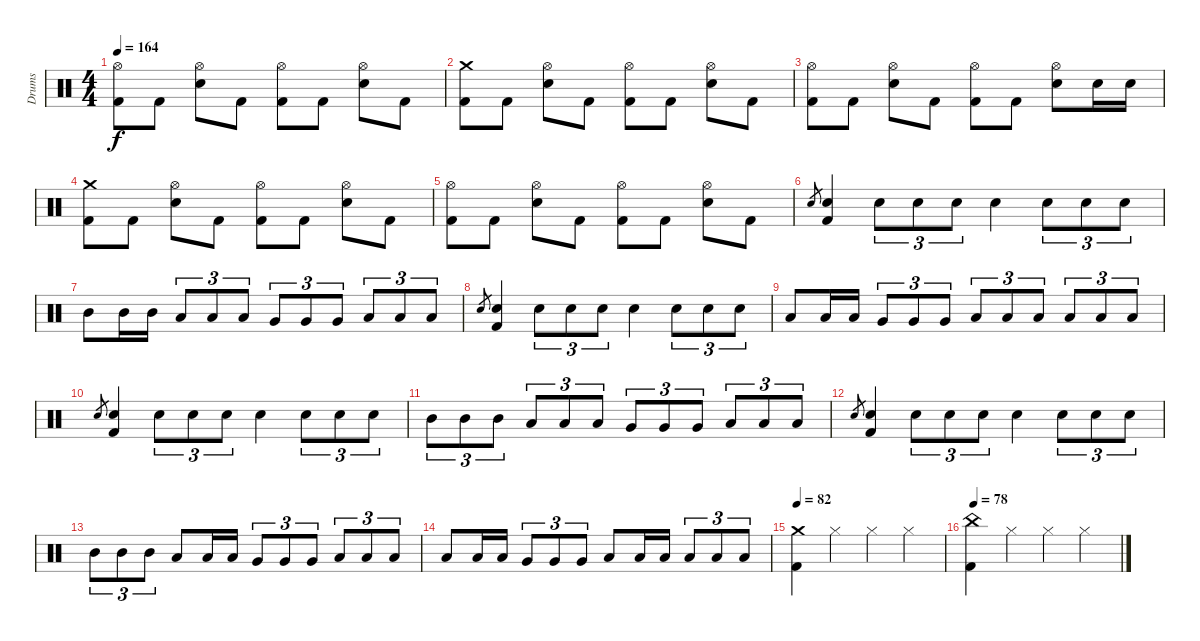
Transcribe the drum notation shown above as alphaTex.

\track ("Drums" "Drums") {instrument percussion}
\staff {score}
\articulation defaults
\ts (4 4)
\tempo 164
\clef neutral
\ks c
("Hi-Hat (open)" "Kick (hit) 2").8{dy f} "Kick (hit) 2".8 ("Hi-Hat (open)" "Electric Snare (hit)").8 "Kick (hit) 2".8 ("Hi-Hat (open)" "Kick (hit) 2").8 "Kick (hit) 2".8 ("Hi-Hat (open)" "Electric Snare (hit)").8 "Kick (hit) 2".8 |
("Crash medium (hit)" "Kick (hit) 2").8 "Kick (hit) 2".8 ("Hi-Hat (open)" "Electric Snare (hit)").8 "Kick (hit) 2".8 ("Hi-Hat (open)" "Kick (hit) 2").8 "Kick (hit) 2".8 ("Hi-Hat (open)" "Electric Snare (hit)").8 "Kick (hit) 2".8 |
("Hi-Hat (open)" "Kick (hit) 2").8 "Kick (hit) 2".8 ("Hi-Hat (open)" "Electric Snare (hit)").8 "Kick (hit) 2".8 ("Hi-Hat (open)" "Kick (hit) 2").8 "Kick (hit) 2".8 ("Hi-Hat (open)" "Electric Snare (hit)").8 "Electric Snare (hit)".16 "Electric Snare (hit)".16 |
("Crash medium (hit)" "Kick (hit) 2").8 "Kick (hit) 2".8 ("Hi-Hat (open)" "Electric Snare (hit)").8 "Kick (hit) 2".8 ("Hi-Hat (open)" "Kick (hit) 2").8 "Kick (hit) 2".8 ("Hi-Hat (open)" "Electric Snare (hit)").8 "Kick (hit) 2".8 |
("Hi-Hat (open)" "Kick (hit) 2").8 "Kick (hit) 2".8 ("Hi-Hat (open)" "Electric Snare (hit)").8 "Kick (hit) 2".8 ("Hi-Hat (open)" "Kick (hit) 2").8 "Kick (hit) 2".8 ("Hi-Hat (open)" "Electric Snare (hit)").8 "Kick (hit) 2".8 |
"Electric Snare (hit)".8{gr} ("Electric Snare (hit)" "Kick (hit) 2").4 "Electric Snare (hit)".8{tu (3 2)} "Electric Snare (hit)".8{tu (3 2)} "Electric Snare (hit)".8{tu (3 2)} "Electric Snare (hit)".4 "Electric Snare (hit)".8{tu (3 2)} "Electric Snare (hit)".8{tu (3 2)} "Electric Snare (hit)".8{tu (3 2)} |
"Mid Tom (hit)".8 "Mid Tom (hit)".16 "Mid Tom (hit)".16 "Low Tom (hit)".8{tu (3 2)} "Low Tom (hit)".8{tu (3 2)} "Low Tom (hit)".8{tu (3 2)} "Very Low Tom (hit)".8{tu (3 2)} "Very Low Tom (hit)".8{tu (3 2)} "Very Low Tom (hit)".8{tu (3 2)} "Low Floor Tom (hit)".8{tu (3 2)} "Low Floor Tom (hit)".8{tu (3 2)} "Low Floor Tom (hit)".8{tu (3 2)} |
"Electric Snare (hit)".8{gr} ("Electric Snare (hit)" "Kick (hit) 2").4 "Electric Snare (hit)".8{tu (3 2)} "Electric Snare (hit)".8{tu (3 2)} "Electric Snare (hit)".8{tu (3 2)} "Electric Snare (hit)".4 "Electric Snare (hit)".8{tu (3 2)} "Electric Snare (hit)".8{tu (3 2)} "Electric Snare (hit)".8{tu (3 2)} |
"Low Tom (hit)".8 "Low Tom (hit)".16 "Low Tom (hit)".16 "Very Low Tom (hit)".8{tu (3 2)} "Very Low Tom (hit)".8{tu (3 2)} "Very Low Tom (hit)".8{tu (3 2)} "Low Floor Tom (hit)".8{tu (3 2)} "Low Floor Tom (hit)".8{tu (3 2)} "Low Floor Tom (hit)".8{tu (3 2)} "Low Floor Tom (hit)".8{tu (3 2)} "Low Floor Tom (hit)".8{tu (3 2)} "Low Floor Tom (hit)".8{tu (3 2)} |
"Electric Snare (hit)".8{gr} ("Electric Snare (hit)" "Kick (hit) 2").4 "Electric Snare (hit)".8{tu (3 2)} "Electric Snare (hit)".8{tu (3 2)} "Electric Snare (hit)".8{tu (3 2)} "Electric Snare (hit)".4 "Electric Snare (hit)".8{tu (3 2)} "Electric Snare (hit)".8{tu (3 2)} "Electric Snare (hit)".8{tu (3 2)} |
"Mid Tom (hit)".8{tu (3 2)} "Mid Tom (hit)".8{tu (3 2)} "Mid Tom (hit)".8{tu (3 2)} "Low Tom (hit)".8{tu (3 2)} "Low Tom (hit)".8{tu (3 2)} "Low Tom (hit)".8{tu (3 2)} "Very Low Tom (hit)".8{tu (3 2)} "Very Low Tom (hit)".8{tu (3 2)} "Very Low Tom (hit)".8{tu (3 2)} "Low Floor Tom (hit)".8{tu (3 2)} "Low Floor Tom (hit)".8{tu (3 2)} "Low Floor Tom (hit)".8{tu (3 2)} |
"Electric Snare (hit)".8{gr} ("Electric Snare (hit)" "Kick (hit) 2").4 "Electric Snare (hit)".8{tu (3 2)} "Electric Snare (hit)".8{tu (3 2)} "Electric Snare (hit)".8{tu (3 2)} "Electric Snare (hit)".4 "Electric Snare (hit)".8{tu (3 2)} "Electric Snare (hit)".8{tu (3 2)} "Electric Snare (hit)".8{tu (3 2)} |
"Mid Tom (hit)".8{tu (3 2)} "Mid Tom (hit)".8{tu (3 2)} "Mid Tom (hit)".8{tu (3 2)} "Low Tom (hit)".8 "Low Tom (hit)".16 "Low Tom (hit)".16 "Very Low Tom (hit)".8{tu (3 2)} "Very Low Tom (hit)".8{tu (3 2)} "Very Low Tom (hit)".8{tu (3 2)} "Low Floor Tom (hit)".8{tu (3 2)} "Low Floor Tom (hit)".8{tu (3 2)} "Low Floor Tom (hit)".8{tu (3 2)} |
"Low Tom (hit)".8 "Low Tom (hit)".16 "Low Tom (hit)".16 "Very Low Tom (hit)".8{tu (3 2)} "Very Low Tom (hit)".8{tu (3 2)} "Very Low Tom (hit)".8{tu (3 2)} "Low Floor Tom (hit)".8 "Low Floor Tom (hit)".16 "Low Floor Tom (hit)".16 "Low Floor Tom (hit)".8{tu (3 2)} "Low Floor Tom (hit)".8{tu (3 2)} "Low Floor Tom (hit)".8{tu (3 2)} |
\tempo 82
("Crash medium (hit)" "Kick (hit) 2").4 "Hi-Hat (closed)".4 "Hi-Hat (closed)".4 "Hi-Hat (closed)".4 |
\tempo 78
("China (hit)" "Kick (hit) 2").4 "Hi-Hat (closed)".4 "Hi-Hat (closed)".4 "Hi-Hat (closed)".4
